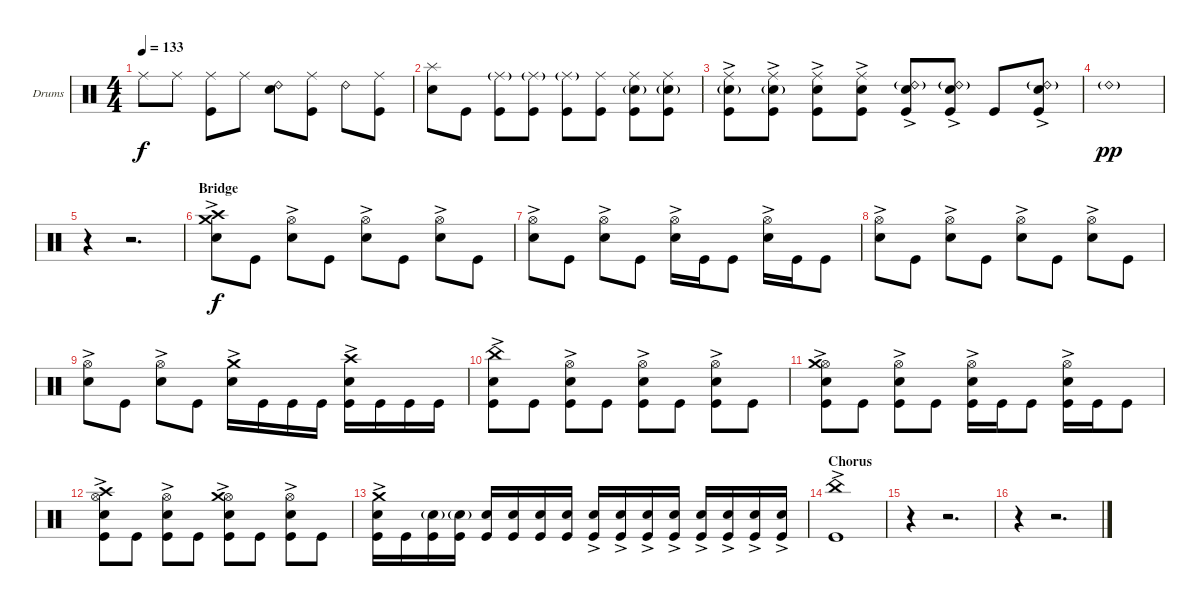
\bracketExtendMode groupsimilarinstruments
\firstSystemTrackNameOrientation horizontal
\otherSystemsTrackNameOrientation horizontal
\track ("Drumkit" "Drums") {instrument percussion}
\staff {score}
\articulation defaults
\ts (4 4)
\tempo 133
\clef neutral
\ks c "Ride (middle)".8{dy f} "Ride (middle)".8
("Ride (middle)" "Kick (hit)").8 "Ride (middle)".8 ("Ride (bell) 2" "Snare (hit) 2").8 ("Ride (middle)" "Kick (hit)").8 "Ride (bell) 2".8 ("Ride (middle)" "Kick (hit)").8 |
("Snare (hit) 2" "Splash (hit)").8 "Kick (hit)".8 ("Kick (hit)" "Ride (middle)"{g}).8 ("Kick (hit)" "Ride (middle)"{g}).8 ("Kick (hit)" "Ride (middle)"{g}).8 ("Kick (hit)" "Ride (middle)").8 ("Kick (hit)" "Snare (hit) 2"{g} "Ride (middle)").8 ("Kick (hit)" "Snare (hit) 2"{g} "Ride (middle)").8 |
("Kick (hit)" "Snare (hit) 2"{g} "Ride (middle)"{ac}).8 ("Kick (hit)" "Snare (hit) 2"{g} "Ride (middle)"{ac}).8 ("Kick (hit)" "Snare (hit) 2" "Ride (middle)"{ac}).8 ("Kick (hit)" "Snare (hit) 2" "Ride (middle)"{ac}).8 ("Kick (hit)" "Snare (hit) 2"{ac} "Ride (bell) 2"{g}).8 ("Kick (hit)" "Snare (hit) 2"{ac} "Ride (bell) 2"{g}).8 "Kick (hit)".8 ("Kick (hit)" "Snare (hit) 2"{ac} "Ride (bell) 2"{g}).8 |
"Ride (bell) 2"{g}.1{dy pp} |
r.4 r.2{d} |
\section ("" "Bridge")
("Snare (hit) 2"{ac} "Crash medium (hit)" "Crash high (hit)").8{dy f} "Kick (hit)".8 ("Snare (hit) 2"{ac} "Hi-Hat (open)").8 "Kick (hit)".8 ("Snare (hit) 2"{ac} "Hi-Hat (open)").8 "Kick (hit)".8 ("Snare (hit) 2"{ac} "Hi-Hat (open)").8 "Kick (hit)".8 |
("Snare (hit) 2"{ac} "Hi-Hat (open)").8 "Kick (hit)".8 ("Snare (hit) 2"{ac} "Hi-Hat (open)").8 "Kick (hit)".8 ("Snare (hit) 2"{ac} "Hi-Hat (open)").16 "Kick (hit)".16 "Kick (hit)".8 ("Snare (hit) 2"{ac} "Hi-Hat (open)").16 "Kick (hit)".16 "Kick (hit)".8 |
("Snare (hit) 2"{ac} "Hi-Hat (open)").8 "Kick (hit)".8 ("Snare (hit) 2"{ac} "Hi-Hat (open)").8 "Kick (hit)".8 ("Snare (hit) 2"{ac} "Hi-Hat (open)").8 "Kick (hit)".8 ("Snare (hit) 2"{ac} "Hi-Hat (open)").8 "Kick (hit)".8 |
("Snare (hit) 2"{ac} "Hi-Hat (open)").8 "Kick (hit)".8 ("Snare (hit) 2"{ac} "Hi-Hat (open)").8 "Kick (hit)".8 ("Snare (hit) 2"{ac} "Crash medium (hit)").16 "Kick (hit)".16 "Kick (hit)".16 "Kick (hit)".16 ("Snare (hit) 2"{ac} "Crash high (hit)" "Kick (hit)").16 "Kick (hit)".16 "Kick (hit)".16 "Kick (hit)".16 |
("China (hit)"{ac} "Snare (hit) 2"{ac} "Kick (hit)").8 "Kick (hit)".8 ("Snare (hit) 2"{ac} "Hi-Hat (open)" "Kick (hit)").8 "Kick (hit)".8 ("Snare (hit) 2"{ac} "Hi-Hat (open)" "Kick (hit)").8 "Kick (hit)".8 ("Snare (hit) 2"{ac} "Hi-Hat (open)" "Kick (hit)").8 "Kick (hit)".8 |
("Snare (hit) 2"{ac} "Hi-Hat (open)" "Crash medium (hit)"{ac} "Kick (hit)").8 "Kick (hit)".8 ("Snare (hit) 2"{ac} "Hi-Hat (open)" "Kick (hit)").8 "Kick (hit)".8 ("Snare (hit) 2"{ac} "Hi-Hat (open)" "Kick (hit)").16 "Kick (hit)".16 "Kick (hit)".8 ("Snare (hit) 2"{ac} "Hi-Hat (open)" "Kick (hit)").16 "Kick (hit)".16 "Kick (hit)".8 |
("Snare (hit) 2"{ac} "Hi-Hat (open)" "Crash high (hit)" "Kick (hit)").8 "Kick (hit)".8 ("Snare (hit) 2"{ac} "Hi-Hat (open)" "Kick (hit)").8 "Kick (hit)".8 ("Snare (hit) 2"{ac} "Hi-Hat (open)" "Kick (hit)" "Crash medium (hit)").8 "Kick (hit)".8 ("Snare (hit) 2"{ac} "Hi-Hat (open)" "Kick (hit)").8 "Kick (hit)".8 |
("Kick (hit)" "Snare (hit) 2"{ac} "Crash medium (hit)").16 "Kick (hit)".16 ("Kick (hit)" "Snare (hit) 2"{g}).16 ("Kick (hit)" "Snare (hit) 2"{g}).16 ("Kick (hit)" "Snare (hit) 2").16 ("Kick (hit)" "Snare (hit) 2").16 ("Kick (hit)" "Snare (hit) 2").16 ("Kick (hit)" "Snare (hit) 2").16 ("Kick (hit)" "Snare (hit) 2"{ac}).16 ("Snare (hit) 2"{ac} "Kick (hit)").16 ("Snare (hit) 2"{ac} "Kick (hit)").16 ("Snare (hit) 2"{ac} "Kick (hit)").16 ("Snare (hit) 2"{ac} "Kick (hit)").16 ("Snare (hit) 2"{ac} "Kick (hit)").16 ("Snare (hit) 2"{ac} "Kick (hit)").16 ("Snare (hit) 2"{ac} "Kick (hit)").16 |
\section ("" "Chorus")
("Kick (hit)" "China (hit)"{ac}).1 |
r.4 r.2{d} |
r.4 r.2{d}
